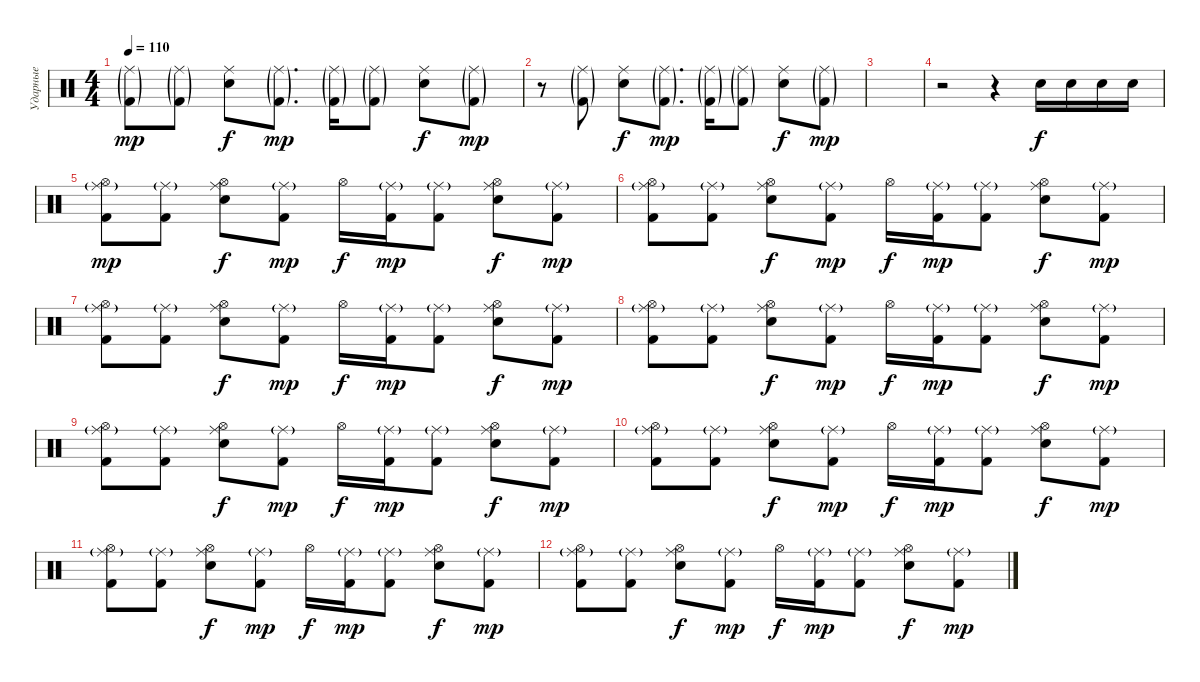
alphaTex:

\track ("Ударные" "Ударные") {instrument percussion}
\staff {score}
\articulation defaults
\ts (4 4)
\tempo 110
\clef neutral
\ks c
("Ride (middle)"{g} "Kick (hit) 2"{g}).8{dy mp} ("Ride (middle)"{g} "Kick (hit) 2"{g}).8 ("Ride (middle)" "Snare (hit) 2").8{dy f} ("Ride (middle)"{g} "Kick (hit) 2"{g}).8{d dy mp} ("Ride (middle)"{g} "Kick (hit) 2"{g}).16 ("Ride (middle)"{g} "Kick (hit) 2"{g}).8 ("Ride (middle)" "Snare (hit) 2").8{dy f} ("Ride (middle)"{g} "Kick (hit) 2"{g}).8{dy mp} |
r.8 ("Ride (middle)"{g} "Kick (hit) 2"{g}).8 ("Ride (middle)" "Snare (hit) 2").8{dy f} ("Ride (middle)"{g} "Kick (hit) 2"{g}).8{d dy mp} ("Ride (middle)"{g} "Kick (hit) 2"{g}).16 ("Ride (middle)"{g} "Kick (hit) 2"{g}).8 ("Ride (middle)" "Snare (hit) 2").8{dy f} ("Ride (middle)"{g} "Kick (hit) 2"{g}).8{dy mp} |
|
r.2 r.4 "Snare (hit) 2".16{dy f} "Snare (hit) 2".16 "Snare (hit) 2".16 "Snare (hit) 2".16 |
("Hi-Hat (open)" "Ride (middle)"{g} "Kick (hit) 2").8{dy mp} ("Ride (middle)"{g} "Kick (hit) 2").8 ("Hi-Hat (open)" "Ride (middle)" "Snare (hit) 2").8{dy f} ("Ride (middle)"{g} "Kick (hit) 2").8{dy mp} "Hi-Hat (open)".16{dy f} ("Ride (middle)"{g} "Kick (hit) 2").16{dy mp} ("Ride (middle)"{g} "Kick (hit) 2").8 ("Hi-Hat (open)" "Ride (middle)" "Snare (hit) 2").8{dy f} ("Ride (middle)"{g} "Kick (hit) 2").8{dy mp} |
("Hi-Hat (open)" "Ride (middle)"{g} "Kick (hit) 2").8 ("Ride (middle)"{g} "Kick (hit) 2").8 ("Hi-Hat (open)" "Ride (middle)" "Snare (hit) 2").8{dy f} ("Ride (middle)"{g} "Kick (hit) 2").8{dy mp} "Hi-Hat (open)".16{dy f} ("Ride (middle)"{g} "Kick (hit) 2").16{dy mp} ("Ride (middle)"{g} "Kick (hit) 2").8 ("Hi-Hat (open)" "Ride (middle)" "Snare (hit) 2").8{dy f} ("Ride (middle)"{g} "Kick (hit) 2").8{dy mp} |
("Hi-Hat (open)" "Ride (middle)"{g} "Kick (hit) 2").8 ("Ride (middle)"{g} "Kick (hit) 2").8 ("Hi-Hat (open)" "Ride (middle)" "Snare (hit) 2").8{dy f} ("Ride (middle)"{g} "Kick (hit) 2").8{dy mp} "Hi-Hat (open)".16{dy f} ("Ride (middle)"{g} "Kick (hit) 2").16{dy mp} ("Ride (middle)"{g} "Kick (hit) 2").8 ("Hi-Hat (open)" "Ride (middle)" "Snare (hit) 2").8{dy f} ("Ride (middle)"{g} "Kick (hit) 2").8{dy mp} |
("Hi-Hat (open)" "Ride (middle)"{g} "Kick (hit) 2").8 ("Ride (middle)"{g} "Kick (hit) 2").8 ("Hi-Hat (open)" "Ride (middle)" "Snare (hit) 2").8{dy f} ("Ride (middle)"{g} "Kick (hit) 2").8{dy mp} "Hi-Hat (open)".16{dy f} ("Ride (middle)"{g} "Kick (hit) 2").16{dy mp} ("Ride (middle)"{g} "Kick (hit) 2").8 ("Hi-Hat (open)" "Ride (middle)" "Snare (hit) 2").8{dy f} ("Ride (middle)"{g} "Kick (hit) 2").8{dy mp} |
("Hi-Hat (open)" "Ride (middle)"{g} "Kick (hit) 2").8 ("Ride (middle)"{g} "Kick (hit) 2").8 ("Hi-Hat (open)" "Ride (middle)" "Snare (hit) 2").8{dy f} ("Ride (middle)"{g} "Kick (hit) 2").8{dy mp} "Hi-Hat (open)".16{dy f} ("Ride (middle)"{g} "Kick (hit) 2").16{dy mp} ("Ride (middle)"{g} "Kick (hit) 2").8 ("Hi-Hat (open)" "Ride (middle)" "Snare (hit) 2").8{dy f} ("Ride (middle)"{g} "Kick (hit) 2").8{dy mp} |
("Hi-Hat (open)" "Ride (middle)"{g} "Kick (hit) 2").8 ("Ride (middle)"{g} "Kick (hit) 2").8 ("Hi-Hat (open)" "Ride (middle)" "Snare (hit) 2").8{dy f} ("Ride (middle)"{g} "Kick (hit) 2").8{dy mp} "Hi-Hat (open)".16{dy f} ("Ride (middle)"{g} "Kick (hit) 2").16{dy mp} ("Ride (middle)"{g} "Kick (hit) 2").8 ("Hi-Hat (open)" "Ride (middle)" "Snare (hit) 2").8{dy f} ("Ride (middle)"{g} "Kick (hit) 2").8{dy mp} |
("Hi-Hat (open)" "Ride (middle)"{g} "Kick (hit) 2").8 ("Ride (middle)"{g} "Kick (hit) 2").8 ("Hi-Hat (open)" "Ride (middle)" "Snare (hit) 2").8{dy f} ("Ride (middle)"{g} "Kick (hit) 2").8{dy mp} "Hi-Hat (open)".16{dy f} ("Ride (middle)"{g} "Kick (hit) 2").16{dy mp} ("Ride (middle)"{g} "Kick (hit) 2").8 ("Hi-Hat (open)" "Ride (middle)" "Snare (hit) 2").8{dy f} ("Ride (middle)"{g} "Kick (hit) 2").8{dy mp} |
("Hi-Hat (open)" "Ride (middle)"{g} "Kick (hit) 2").8 ("Ride (middle)"{g} "Kick (hit) 2").8 ("Hi-Hat (open)" "Ride (middle)" "Snare (hit) 2").8{dy f} ("Ride (middle)"{g} "Kick (hit) 2").8{dy mp} "Hi-Hat (open)".16{dy f} ("Ride (middle)"{g} "Kick (hit) 2").16{dy mp} ("Ride (middle)"{g} "Kick (hit) 2").8 ("Hi-Hat (open)" "Ride (middle)" "Snare (hit) 2").8{dy f} ("Ride (middle)"{g} "Kick (hit) 2").8{dy mp}
